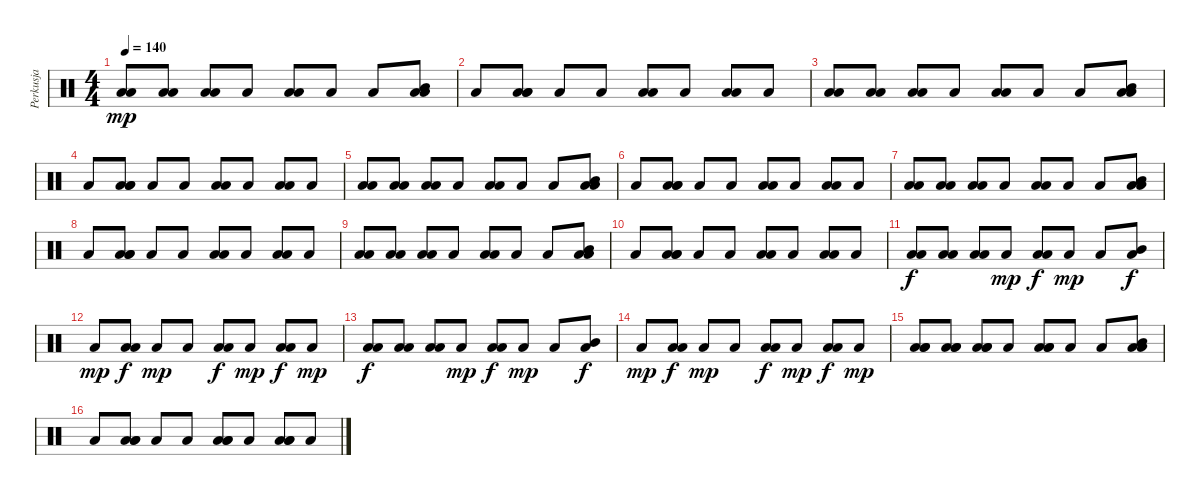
\track ("Perkusja" "Perkusja") {instrument percussion}
\staff {score}
\articulation defaults
\ts (4 4)
\tempo 140
\clef neutral
\ks c
("Low Floor Tom (hit)" "Low Floor Tom (hit)").8{dy mp volume 0} ("Low Floor Tom (hit)" "Low Floor Tom (hit)").8{volume 7} ("Low Floor Tom (hit)" "Low Floor Tom (hit)").8 "Low Floor Tom (hit)".8 ("Low Floor Tom (hit)" "Low Floor Tom (hit)").8 "Low Floor Tom (hit)".8 "Low Floor Tom (hit)".8 ("Mid Tom (hit)" "Low Floor Tom (hit)" "Low Floor Tom (hit)").8 |
"Low Floor Tom (hit)".8 ("Low Tom (hit)" "Low Floor Tom (hit)" "Low Floor Tom (hit)").8 "Low Floor Tom (hit)".8 "Low Floor Tom (hit)".8 ("Low Floor Tom (hit)" "Low Floor Tom (hit)").8 "Low Floor Tom (hit)".8 ("Low Floor Tom (hit)" "Low Floor Tom (hit)").8 "Low Floor Tom (hit)".8 |
("Low Floor Tom (hit)" "Low Floor Tom (hit)").8 ("Low Floor Tom (hit)" "Low Floor Tom (hit)").8 ("Low Floor Tom (hit)" "Low Floor Tom (hit)").8 "Low Floor Tom (hit)".8 ("Low Floor Tom (hit)" "Low Floor Tom (hit)").8 "Low Floor Tom (hit)".8 "Low Floor Tom (hit)".8 ("Mid Tom (hit)" "Low Floor Tom (hit)" "Low Floor Tom (hit)").8 |
"Low Floor Tom (hit)".8 ("Low Tom (hit)" "Low Floor Tom (hit)" "Low Floor Tom (hit)").8 "Low Floor Tom (hit)".8 "Low Floor Tom (hit)".8 ("Low Floor Tom (hit)" "Low Floor Tom (hit)").8 "Low Floor Tom (hit)".8 ("Low Floor Tom (hit)" "Low Floor Tom (hit)").8 "Low Floor Tom (hit)".8 |
("Low Floor Tom (hit)" "Low Floor Tom (hit)").8 ("Low Floor Tom (hit)" "Low Floor Tom (hit)").8 ("Low Floor Tom (hit)" "Low Floor Tom (hit)").8 "Low Floor Tom (hit)".8 ("Low Floor Tom (hit)" "Low Floor Tom (hit)").8 "Low Floor Tom (hit)".8 "Low Floor Tom (hit)".8 ("Mid Tom (hit)" "Low Floor Tom (hit)" "Low Floor Tom (hit)").8 |
"Low Floor Tom (hit)".8 ("Low Tom (hit)" "Low Floor Tom (hit)" "Low Floor Tom (hit)").8 "Low Floor Tom (hit)".8 "Low Floor Tom (hit)".8 ("Low Floor Tom (hit)" "Low Floor Tom (hit)").8 "Low Floor Tom (hit)".8 ("Low Floor Tom (hit)" "Low Floor Tom (hit)").8 "Low Floor Tom (hit)".8 |
("Low Floor Tom (hit)" "Low Floor Tom (hit)").8 ("Low Floor Tom (hit)" "Low Floor Tom (hit)").8 ("Low Floor Tom (hit)" "Low Floor Tom (hit)").8 "Low Floor Tom (hit)".8 ("Low Floor Tom (hit)" "Low Floor Tom (hit)").8 "Low Floor Tom (hit)".8 "Low Floor Tom (hit)".8 ("Mid Tom (hit)" "Low Floor Tom (hit)" "Low Floor Tom (hit)").8 |
"Low Floor Tom (hit)".8 ("Low Tom (hit)" "Low Floor Tom (hit)" "Low Floor Tom (hit)").8 "Low Floor Tom (hit)".8 "Low Floor Tom (hit)".8 ("Low Floor Tom (hit)" "Low Floor Tom (hit)").8 "Low Floor Tom (hit)".8 ("Low Floor Tom (hit)" "Low Floor Tom (hit)").8 "Low Floor Tom (hit)".8 |
("Low Floor Tom (hit)" "Low Floor Tom (hit)").8 ("Low Floor Tom (hit)" "Low Floor Tom (hit)").8 ("Low Floor Tom (hit)" "Low Floor Tom (hit)").8 "Low Floor Tom (hit)".8 ("Low Floor Tom (hit)" "Low Floor Tom (hit)").8 "Low Floor Tom (hit)".8 "Low Floor Tom (hit)".8 ("Mid Tom (hit)" "Low Floor Tom (hit)" "Low Floor Tom (hit)").8 |
"Low Floor Tom (hit)".8 ("Low Tom (hit)" "Low Floor Tom (hit)" "Low Floor Tom (hit)").8 "Low Floor Tom (hit)".8 "Low Floor Tom (hit)".8 ("Low Floor Tom (hit)" "Low Floor Tom (hit)").8 "Low Floor Tom (hit)".8 ("Low Floor Tom (hit)" "Low Floor Tom (hit)").8 "Low Floor Tom (hit)".8 |
("Low Floor Tom (hit)" "Low Floor Tom (hit)").8{dy f volume 16} ("Low Floor Tom (hit)" "Low Floor Tom (hit)").8 ("Low Floor Tom (hit)" "Low Floor Tom (hit)").8 "Low Floor Tom (hit)".8{dy mp} ("Low Floor Tom (hit)" "Low Floor Tom (hit)").8{dy f} "Low Floor Tom (hit)".8{dy mp} "Low Floor Tom (hit)".8 ("Mid Tom (hit)" "Low Floor Tom (hit)").8{dy f} |
"Low Floor Tom (hit)".8{dy mp} ("Low Tom (hit)" "Low Floor Tom (hit)").8{dy f} "Low Floor Tom (hit)".8{dy mp} "Low Floor Tom (hit)".8 ("Low Floor Tom (hit)" "Low Floor Tom (hit)").8{dy f} "Low Floor Tom (hit)".8{dy mp} ("Low Floor Tom (hit)" "Low Floor Tom (hit)").8{dy f} "Low Floor Tom (hit)".8{dy mp} |
("Low Floor Tom (hit)" "Low Floor Tom (hit)").8{dy f} ("Low Floor Tom (hit)" "Low Floor Tom (hit)").8 ("Low Floor Tom (hit)" "Low Floor Tom (hit)").8 "Low Floor Tom (hit)".8{dy mp} ("Low Floor Tom (hit)" "Low Floor Tom (hit)").8{dy f} "Low Floor Tom (hit)".8{dy mp} "Low Floor Tom (hit)".8 ("Mid Tom (hit)" "Low Floor Tom (hit)").8{dy f} |
"Low Floor Tom (hit)".8{dy mp} ("Low Tom (hit)" "Low Floor Tom (hit)").8{dy f} "Low Floor Tom (hit)".8{dy mp} "Low Floor Tom (hit)".8 ("Low Floor Tom (hit)" "Low Floor Tom (hit)").8{dy f} "Low Floor Tom (hit)".8{dy mp} ("Low Floor Tom (hit)" "Low Floor Tom (hit)").8{dy f} "Low Floor Tom (hit)".8{dy mp} |
("Low Tom (hit)" "Low Floor Tom (hit)" "Low Floor Tom (hit)").8 ("Low Tom (hit)" "Low Floor Tom (hit)" "Low Floor Tom (hit)").8 ("Low Tom (hit)" "Low Floor Tom (hit)" "Low Floor Tom (hit)").8 "Low Floor Tom (hit)".8 ("Low Tom (hit)" "Low Floor Tom (hit)" "Low Floor Tom (hit)").8 "Low Floor Tom (hit)".8 "Low Floor Tom (hit)".8 ("Mid Tom (hit)" "Low Floor Tom (hit)" "Low Floor Tom (hit)").8 |
"Low Floor Tom (hit)".8 ("Low Tom (hit)" "Low Floor Tom (hit)" "Low Floor Tom (hit)").8 "Low Floor Tom (hit)".8 "Low Floor Tom (hit)".8 ("Low Tom (hit)" "Low Floor Tom (hit)" "Low Floor Tom (hit)").8 "Low Floor Tom (hit)".8 ("Low Tom (hit)" "Low Floor Tom (hit)" "Low Floor Tom (hit)").8 "Low Floor Tom (hit)".8
